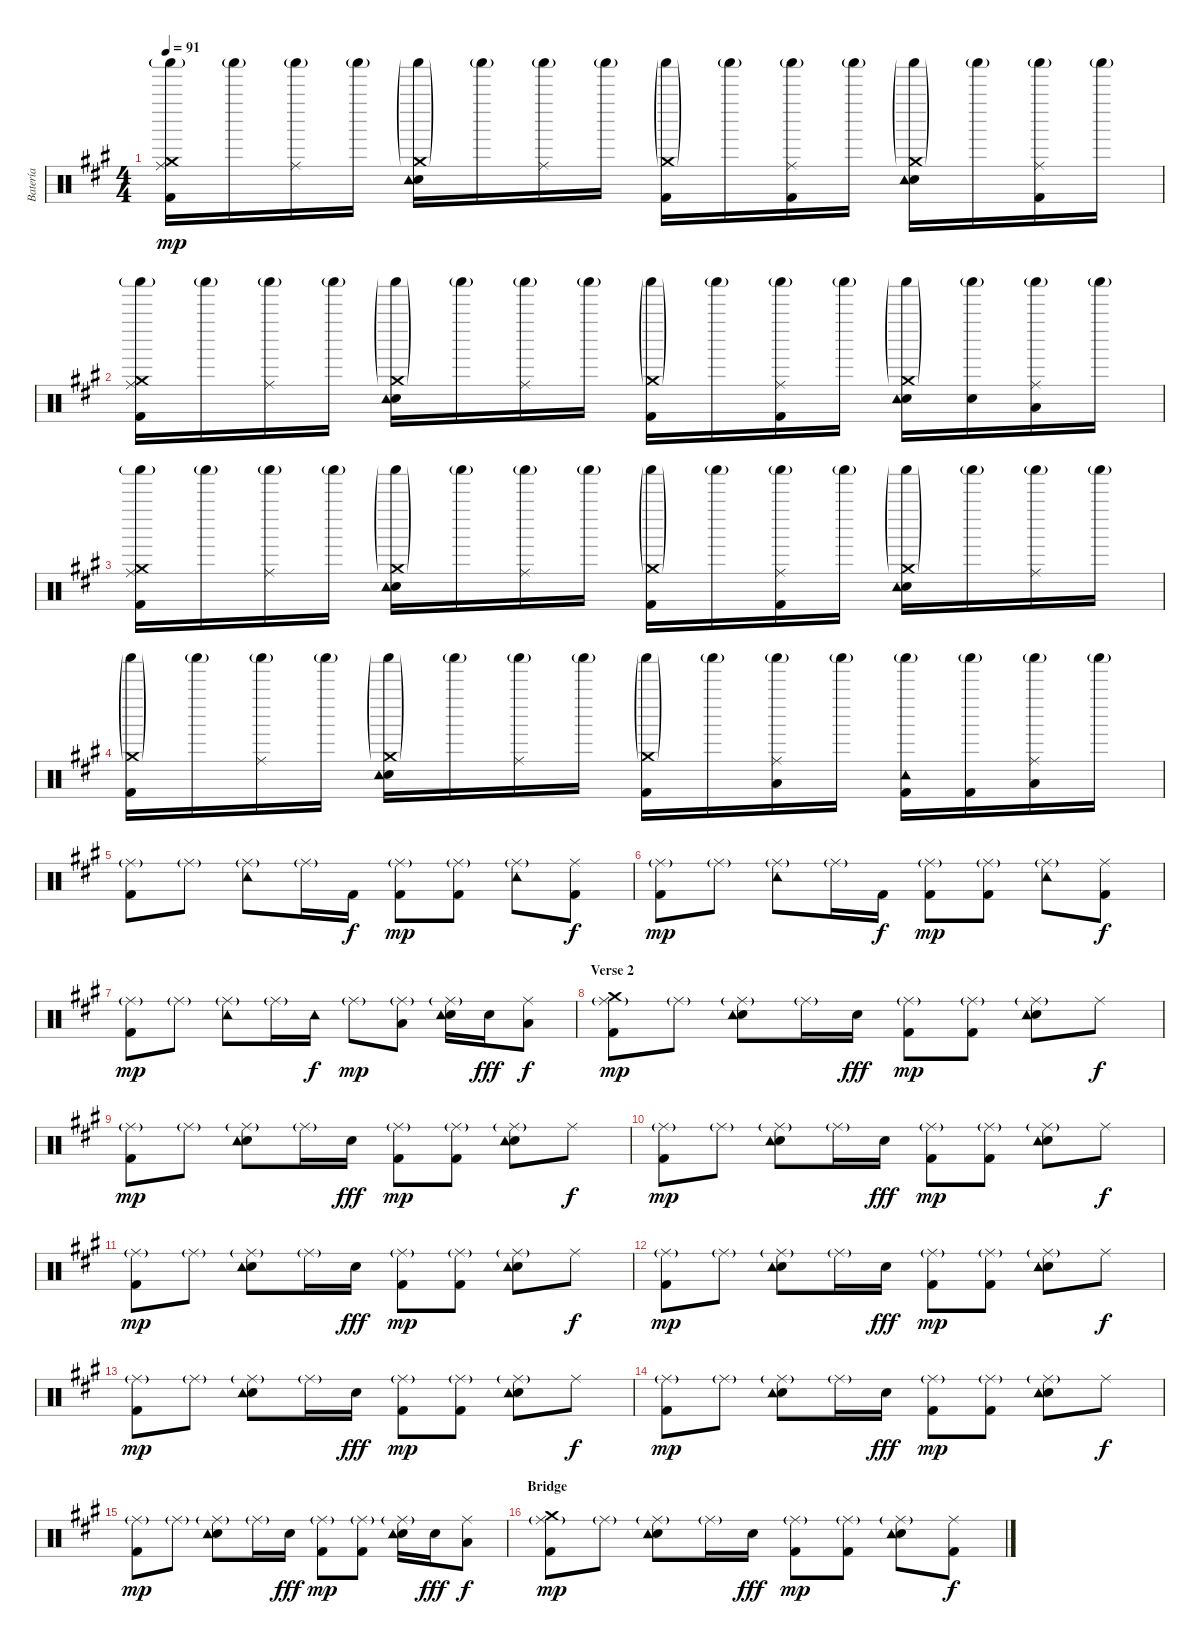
\track ("Batería" "Batería") {instrument percussion}
\staff {score}
\articulation defaults
\ts (4 4)
\tempo 91
\clef neutral
\ks a
("Kick (hit) 2" "Ride (middle)" "Crash medium (hit)" "Shaker (hit)"{g}).16{dy mp} "Shaker (hit)"{g}.16 ("Ride (middle)" "Shaker (hit)"{g}).16 "Shaker (hit)"{g}.16 ("Electric Snare (hit)" "Crash medium (hit)"{g} "Tambourine (hit)" "Shaker (hit)"{g}).16 "Shaker (hit)"{g}.16 ("Ride (middle)" "Shaker (hit)"{g}).16 "Shaker (hit)"{g}.16 ("Kick (hit) 2" "Crash medium (hit)"{g} "Shaker (hit)"{g}).16 "Shaker (hit)"{g}.16 ("Kick (hit) 2" "Ride (middle)" "Shaker (hit)"{g}).16 "Shaker (hit)"{g}.16 ("Electric Snare (hit)" "Crash medium (hit)"{g} "Tambourine (hit)" "Shaker (hit)"{g}).16 "Shaker (hit)"{g}.16 ("Kick (hit) 2" "Ride (middle)" "Shaker (hit)"{g}).16 "Shaker (hit)"{g}.16 |
("Kick (hit) 2" "Ride (middle)" "Crash medium (hit)" "Shaker (hit)"{g}).16 "Shaker (hit)"{g}.16 ("Ride (middle)" "Shaker (hit)"{g}).16 "Shaker (hit)"{g}.16 ("Electric Snare (hit)" "Crash medium (hit)"{g} "Tambourine (hit)" "Shaker (hit)"{g}).16 "Shaker (hit)"{g}.16 ("Ride (middle)" "Shaker (hit)"{g}).16 "Shaker (hit)"{g}.16 ("Kick (hit) 2" "Crash medium (hit)"{g} "Shaker (hit)"{g}).16 "Shaker (hit)"{g}.16 ("Kick (hit) 2" "Ride (middle)" "Shaker (hit)"{g}).16 "Shaker (hit)"{g}.16 ("Electric Snare (hit)" "Crash medium (hit)"{g} "Tambourine (hit)" "Shaker (hit)"{g}).16 ("Electric Snare (hit)" "Shaker (hit)"{g}).16 ("Ride (middle)" "Low Tom (hit)" "Shaker (hit)"{g}).16 "Shaker (hit)"{g}.16 |
("Kick (hit) 2" "Ride (middle)" "Crash medium (hit)" "Shaker (hit)"{g}).16 "Shaker (hit)"{g}.16 ("Ride (middle)" "Shaker (hit)"{g}).16 "Shaker (hit)"{g}.16 ("Electric Snare (hit)" "Crash medium (hit)"{g} "Tambourine (hit)" "Shaker (hit)"{g}).16 "Shaker (hit)"{g}.16 ("Ride (middle)" "Shaker (hit)"{g}).16 "Shaker (hit)"{g}.16 ("Kick (hit) 2" "Crash medium (hit)"{g} "Shaker (hit)"{g}).16 "Shaker (hit)"{g}.16 ("Kick (hit) 2" "Ride (middle)" "Shaker (hit)"{g}).16 "Shaker (hit)"{g}.16 ("Electric Snare (hit)" "Crash medium (hit)"{g} "Tambourine (hit)" "Shaker (hit)"{g}).16 "Shaker (hit)"{g}.16 ("Ride (middle)" "Shaker (hit)"{g}).16 "Shaker (hit)"{g}.16 |
("Kick (hit) 2" "Crash medium (hit)"{g} "Shaker (hit)"{g}).16 "Shaker (hit)"{g}.16 ("Ride (middle)" "Shaker (hit)"{g}).16 "Shaker (hit)"{g}.16 ("Electric Snare (hit)" "Crash medium (hit)"{g} "Tambourine (hit)" "Shaker (hit)"{g}).16 "Shaker (hit)"{g}.16 ("Ride (middle)" "Shaker (hit)"{g}).16 "Shaker (hit)"{g}.16 ("Kick (hit) 2" "Crash medium (hit)"{g} "Shaker (hit)"{g}).16 "Shaker (hit)"{g}.16 ("Ride (middle)" "Low Tom (hit)" "Shaker (hit)"{g}).16 "Shaker (hit)"{g}.16 ("Kick (hit) 2" "Tambourine (hit)" "Shaker (hit)"{g}).16 ("Kick (hit) 2" "Shaker (hit)"{g}).16 ("Ride (middle)" "Low Tom (hit)" "Shaker (hit)"{g}).16 "Shaker (hit)"{g}.16 |
("Kick (hit) 2" "Ride (middle)"{g}).8 "Ride (middle)"{g}.8 ("Ride (middle)"{g} "Tambourine (hit)").8 "Ride (middle)"{g}.16 "Kick (hit) 2".16{dy f} ("Kick (hit) 2" "Ride (middle)"{g}).8{dy mp} ("Kick (hit) 2" "Ride (middle)"{g}).8 ("Ride (middle)"{g} "Tambourine (hit)").8 ("Kick (hit) 2" "Ride (middle)").8{dy f} |
("Kick (hit) 2" "Ride (middle)"{g}).8{dy mp} "Ride (middle)"{g}.8 ("Ride (middle)"{g} "Tambourine (hit)").8 "Ride (middle)"{g}.16 "Kick (hit) 2".16{dy f} ("Kick (hit) 2" "Ride (middle)"{g}).8{dy mp} ("Kick (hit) 2" "Ride (middle)"{g}).8 ("Ride (middle)"{g} "Tambourine (hit)").8 ("Kick (hit) 2" "Ride (middle)").8{dy f} |
("Kick (hit) 2" "Ride (middle)"{g}).8{dy mp} "Ride (middle)"{g}.8 ("Ride (middle)"{g} "Tambourine (hit)").8 "Ride (middle)"{g}.16 "Tambourine (hit)".16{dy f} "Ride (middle)"{g}.8{dy mp} ("Ride (middle)"{g} "Low Tom (hit)").8 ("Electric Snare (hit)" "Ride (middle)"{g} "Tambourine (hit)").16 "Electric Snare (hit)".16{dy fff} ("Ride (middle)" "Low Tom (hit)").8{dy f} |
\section ("" "Verse 2")
("Kick (hit) 2" "Ride (middle)"{g} "Crash medium (hit)").8{dy mp} "Ride (middle)"{g}.8 ("Electric Snare (hit)" "Ride (middle)"{g} "Tambourine (hit)").8 "Ride (middle)"{g}.16 "Electric Snare (hit)".16{dy fff} ("Kick (hit) 2" "Ride (middle)"{g}).8{dy mp} ("Kick (hit) 2" "Ride (middle)"{g}).8 ("Electric Snare (hit)" "Ride (middle)"{g} "Tambourine (hit)").8 "Ride (middle)".8{dy f} |
("Kick (hit) 2" "Ride (middle)"{g}).8{dy mp} "Ride (middle)"{g}.8 ("Electric Snare (hit)" "Ride (middle)"{g} "Tambourine (hit)").8 "Ride (middle)"{g}.16 "Electric Snare (hit)".16{dy fff} ("Kick (hit) 2" "Ride (middle)"{g}).8{dy mp} ("Kick (hit) 2" "Ride (middle)"{g}).8 ("Electric Snare (hit)" "Ride (middle)"{g} "Tambourine (hit)").8 "Ride (middle)".8{dy f} |
("Kick (hit) 2" "Ride (middle)"{g}).8{dy mp} "Ride (middle)"{g}.8 ("Electric Snare (hit)" "Ride (middle)"{g} "Tambourine (hit)").8 "Ride (middle)"{g}.16 "Electric Snare (hit)".16{dy fff} ("Kick (hit) 2" "Ride (middle)"{g}).8{dy mp} ("Kick (hit) 2" "Ride (middle)"{g}).8 ("Electric Snare (hit)" "Ride (middle)"{g} "Tambourine (hit)").8 "Ride (middle)".8{dy f} |
("Kick (hit) 2" "Ride (middle)"{g}).8{dy mp} "Ride (middle)"{g}.8 ("Electric Snare (hit)" "Ride (middle)"{g} "Tambourine (hit)").8 "Ride (middle)"{g}.16 "Electric Snare (hit)".16{dy fff} ("Kick (hit) 2" "Ride (middle)"{g}).8{dy mp} ("Kick (hit) 2" "Ride (middle)"{g}).8 ("Electric Snare (hit)" "Ride (middle)"{g} "Tambourine (hit)").8 "Ride (middle)".8{dy f} |
("Kick (hit) 2" "Ride (middle)"{g}).8{dy mp} "Ride (middle)"{g}.8 ("Electric Snare (hit)" "Ride (middle)"{g} "Tambourine (hit)").8 "Ride (middle)"{g}.16 "Electric Snare (hit)".16{dy fff} ("Kick (hit) 2" "Ride (middle)"{g}).8{dy mp} ("Kick (hit) 2" "Ride (middle)"{g}).8 ("Electric Snare (hit)" "Ride (middle)"{g} "Tambourine (hit)").8 "Ride (middle)".8{dy f} |
("Kick (hit) 2" "Ride (middle)"{g}).8{dy mp} "Ride (middle)"{g}.8 ("Electric Snare (hit)" "Ride (middle)"{g} "Tambourine (hit)").8 "Ride (middle)"{g}.16 "Electric Snare (hit)".16{dy fff} ("Kick (hit) 2" "Ride (middle)"{g}).8{dy mp} ("Kick (hit) 2" "Ride (middle)"{g}).8 ("Electric Snare (hit)" "Ride (middle)"{g} "Tambourine (hit)").8 "Ride (middle)".8{dy f} |
("Kick (hit) 2" "Ride (middle)"{g}).8{dy mp} "Ride (middle)"{g}.8 ("Electric Snare (hit)" "Ride (middle)"{g} "Tambourine (hit)").8 "Ride (middle)"{g}.16 "Electric Snare (hit)".16{dy fff} ("Kick (hit) 2" "Ride (middle)"{g}).8{dy mp} ("Kick (hit) 2" "Ride (middle)"{g}).8 ("Electric Snare (hit)" "Ride (middle)"{g} "Tambourine (hit)").8 "Ride (middle)".8{dy f} |
("Kick (hit) 2" "Ride (middle)"{g}).8{dy mp} "Ride (middle)"{g}.8 ("Electric Snare (hit)" "Ride (middle)"{g} "Tambourine (hit)").8 "Ride (middle)"{g}.16 "Electric Snare (hit)".16{dy fff} ("Kick (hit) 2" "Ride (middle)"{g}).8{dy mp} ("Kick (hit) 2" "Ride (middle)"{g}).8 ("Electric Snare (hit)" "Ride (middle)"{g} "Tambourine (hit)").16 "Electric Snare (hit)".16{dy fff} ("Ride (middle)" "Low Tom (hit)").8{dy f} |
\section ("" "Bridge")
("Kick (hit) 2" "Ride (middle)"{g} "Crash medium (hit)").8{dy mp} "Ride (middle)"{g}.8 ("Electric Snare (hit)" "Ride (middle)"{g} "Tambourine (hit)").8 "Ride (middle)"{g}.16 "Electric Snare (hit)".16{dy fff} ("Kick (hit) 2" "Ride (middle)"{g}).8{dy mp} ("Kick (hit) 2" "Ride (middle)"{g}).8 ("Electric Snare (hit)" "Ride (middle)"{g} "Tambourine (hit)").8 ("Kick (hit) 2" "Ride (middle)").8{dy f}
